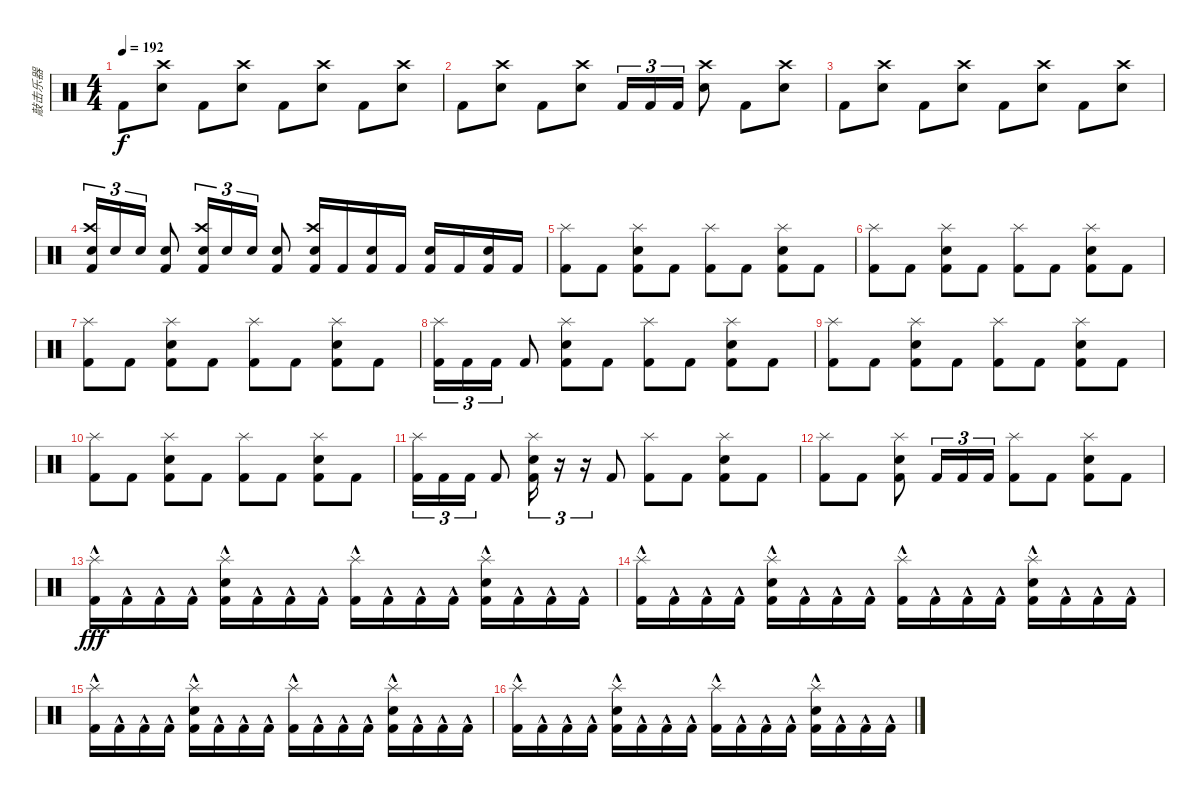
\track ("敲击乐器" "敲击乐器") {instrument percussion}
\staff {score}
\articulation defaults
\ts (4 4)
\tempo 192
\clef neutral
\ks c "Kick (hit) 2".8{dy f}
("Crash high (hit)" "Electric Snare (hit)").8 "Kick (hit) 2".8 ("Crash high (hit)" "Electric Snare (hit)").8 "Kick (hit) 2".8 ("Crash high (hit)" "Electric Snare (hit)").8 "Kick (hit) 2".8 ("Crash high (hit)" "Electric Snare (hit)").8 |
"Kick (hit) 2".8 ("Crash high (hit)" "Electric Snare (hit)").8 "Kick (hit) 2".8 ("Crash high (hit)" "Electric Snare (hit)").8 "Kick (hit) 2".16{tu (3 2)} "Kick (hit) 2".16{tu (3 2)} "Kick (hit) 2".16{tu (3 2)} ("Crash high (hit)" "Electric Snare (hit)").8 "Kick (hit) 2".8 ("Crash high (hit)" "Electric Snare (hit)").8 |
"Kick (hit) 2".8 ("Crash high (hit)" "Electric Snare (hit)").8 "Kick (hit) 2".8 ("Crash high (hit)" "Electric Snare (hit)").8 "Kick (hit) 2".8 ("Crash high (hit)" "Electric Snare (hit)").8 "Kick (hit) 2".8 ("Crash high (hit)" "Electric Snare (hit)").8 |
("Crash high (hit)" "Kick (hit) 2" "Electric Snare (hit)").16{tu (3 2)} "Electric Snare (hit)".16{tu (3 2)} "Electric Snare (hit)".16{tu (3 2)} ("Kick (hit) 2" "Electric Snare (hit)").8 ("Crash high (hit)" "Kick (hit) 2" "Electric Snare (hit)").16{tu (3 2)} "Electric Snare (hit)".16{tu (3 2)} "Electric Snare (hit)".16{tu (3 2)} ("Kick (hit) 2" "Electric Snare (hit)").8 ("Crash high (hit)" "Kick (hit) 2" "Electric Snare (hit)").16 "Kick (hit) 2".16 ("Kick (hit) 2" "Electric Snare (hit)").16 "Kick (hit) 2".16 ("Kick (hit) 2" "Electric Snare (hit)").16 "Kick (hit) 2".16 ("Kick (hit) 2" "Electric Snare (hit)").16 "Kick (hit) 2".16 |
("Splash (hit)" "Kick (hit) 2").8 "Kick (hit) 2".8 ("Splash (hit)" "Kick (hit) 2" "Electric Snare (hit)").8 "Kick (hit) 2".8 ("Splash (hit)" "Kick (hit) 2").8 "Kick (hit) 2".8 ("Splash (hit)" "Kick (hit) 2" "Electric Snare (hit)").8 "Kick (hit) 2".8 |
("Splash (hit)" "Kick (hit) 2").8 "Kick (hit) 2".8 ("Splash (hit)" "Kick (hit) 2" "Electric Snare (hit)").8 "Kick (hit) 2".8 ("Splash (hit)" "Kick (hit) 2").8 "Kick (hit) 2".8 ("Splash (hit)" "Kick (hit) 2" "Electric Snare (hit)").8 "Kick (hit) 2".8 |
("Splash (hit)" "Kick (hit) 2").8 "Kick (hit) 2".8 ("Splash (hit)" "Kick (hit) 2" "Electric Snare (hit)").8 "Kick (hit) 2".8 ("Splash (hit)" "Kick (hit) 2").8 "Kick (hit) 2".8 ("Splash (hit)" "Kick (hit) 2" "Electric Snare (hit)").8 "Kick (hit) 2".8 |
("Splash (hit)" "Kick (hit) 2").16{tu (3 2)} "Kick (hit) 2".16{tu (3 2)} "Kick (hit) 2".16{tu (3 2)} "Kick (hit) 2".8 ("Splash (hit)" "Kick (hit) 2" "Electric Snare (hit)").8 "Kick (hit) 2".8 ("Splash (hit)" "Kick (hit) 2").8 "Kick (hit) 2".8 ("Splash (hit)" "Kick (hit) 2" "Electric Snare (hit)").8 "Kick (hit) 2".8 |
("Splash (hit)" "Kick (hit) 2").8 "Kick (hit) 2".8 ("Splash (hit)" "Kick (hit) 2" "Electric Snare (hit)").8 "Kick (hit) 2".8 ("Splash (hit)" "Kick (hit) 2").8 "Kick (hit) 2".8 ("Splash (hit)" "Kick (hit) 2" "Electric Snare (hit)").8 "Kick (hit) 2".8 |
("Splash (hit)" "Kick (hit) 2").8 "Kick (hit) 2".8 ("Splash (hit)" "Kick (hit) 2" "Electric Snare (hit)").8 "Kick (hit) 2".8 ("Splash (hit)" "Kick (hit) 2").8 "Kick (hit) 2".8 ("Splash (hit)" "Kick (hit) 2" "Electric Snare (hit)").8 "Kick (hit) 2".8 |
("Splash (hit)" "Kick (hit) 2").16{tu (3 2)} "Kick (hit) 2".16{tu (3 2)} "Kick (hit) 2".16{tu (3 2)} "Kick (hit) 2".8 ("Splash (hit)" "Kick (hit) 2" "Electric Snare (hit)").16{tu (3 2)} r.16{tu (3 2)} r.16{tu (3 2)} "Kick (hit) 2".8 ("Splash (hit)" "Kick (hit) 2").8 "Kick (hit) 2".8 ("Splash (hit)" "Kick (hit) 2" "Electric Snare (hit)").8 "Kick (hit) 2".8 |
("Splash (hit)" "Kick (hit) 2").8 "Kick (hit) 2".8 ("Splash (hit)" "Kick (hit) 2" "Electric Snare (hit)").8 "Kick (hit) 2".16{tu (3 2)} "Kick (hit) 2".16{tu (3 2)} "Kick (hit) 2".16{tu (3 2)} ("Splash (hit)" "Kick (hit) 2").8 "Kick (hit) 2".8 ("Splash (hit)" "Kick (hit) 2" "Electric Snare (hit)").8 "Kick (hit) 2".8 |
("Splash (hit)" "Kick (hit) 2"{hac}).16{dy fff} "Kick (hit) 2"{hac}.16 "Kick (hit) 2"{hac}.16 "Kick (hit) 2"{hac}.16 ("Splash (hit)" "Kick (hit) 2"{hac} "Electric Snare (hit)").16 "Kick (hit) 2"{hac}.16 "Kick (hit) 2"{hac}.16 "Kick (hit) 2"{hac}.16 ("Splash (hit)" "Kick (hit) 2"{hac}).16 "Kick (hit) 2"{hac}.16 "Kick (hit) 2"{hac}.16 "Kick (hit) 2"{hac}.16 ("Splash (hit)" "Kick (hit) 2"{hac} "Electric Snare (hit)").16 "Kick (hit) 2"{hac}.16 "Kick (hit) 2"{hac}.16 "Kick (hit) 2"{hac}.16 |
("Splash (hit)" "Kick (hit) 2"{hac}).16 "Kick (hit) 2"{hac}.16 "Kick (hit) 2"{hac}.16 "Kick (hit) 2"{hac}.16 ("Splash (hit)" "Kick (hit) 2"{hac} "Electric Snare (hit)").16 "Kick (hit) 2"{hac}.16 "Kick (hit) 2"{hac}.16 "Kick (hit) 2"{hac}.16 ("Splash (hit)" "Kick (hit) 2"{hac}).16 "Kick (hit) 2"{hac}.16 "Kick (hit) 2"{hac}.16 "Kick (hit) 2"{hac}.16 ("Splash (hit)" "Kick (hit) 2"{hac} "Electric Snare (hit)").16 "Kick (hit) 2"{hac}.16 "Kick (hit) 2"{hac}.16 "Kick (hit) 2"{hac}.16 |
("Splash (hit)" "Kick (hit) 2"{hac}).16 "Kick (hit) 2"{hac}.16 "Kick (hit) 2"{hac}.16 "Kick (hit) 2"{hac}.16 ("Splash (hit)" "Kick (hit) 2"{hac} "Electric Snare (hit)").16 "Kick (hit) 2"{hac}.16 "Kick (hit) 2"{hac}.16 "Kick (hit) 2"{hac}.16 ("Splash (hit)" "Kick (hit) 2"{hac}).16 "Kick (hit) 2"{hac}.16 "Kick (hit) 2"{hac}.16 "Kick (hit) 2"{hac}.16 ("Splash (hit)" "Kick (hit) 2"{hac} "Electric Snare (hit)").16 "Kick (hit) 2"{hac}.16 "Kick (hit) 2"{hac}.16 "Kick (hit) 2"{hac}.16 |
("Splash (hit)" "Kick (hit) 2"{hac}).16 "Kick (hit) 2"{hac}.16 "Kick (hit) 2"{hac}.16 "Kick (hit) 2"{hac}.16 ("Splash (hit)" "Kick (hit) 2"{hac} "Electric Snare (hit)").16 "Kick (hit) 2"{hac}.16 "Kick (hit) 2"{hac}.16 "Kick (hit) 2"{hac}.16 ("Splash (hit)" "Kick (hit) 2"{hac}).16 "Kick (hit) 2"{hac}.16 "Kick (hit) 2"{hac}.16 "Kick (hit) 2"{hac}.16 ("Splash (hit)" "Kick (hit) 2"{hac} "Electric Snare (hit)").16 "Kick (hit) 2"{hac}.16 "Kick (hit) 2"{hac}.16 "Kick (hit) 2"{hac}.16
